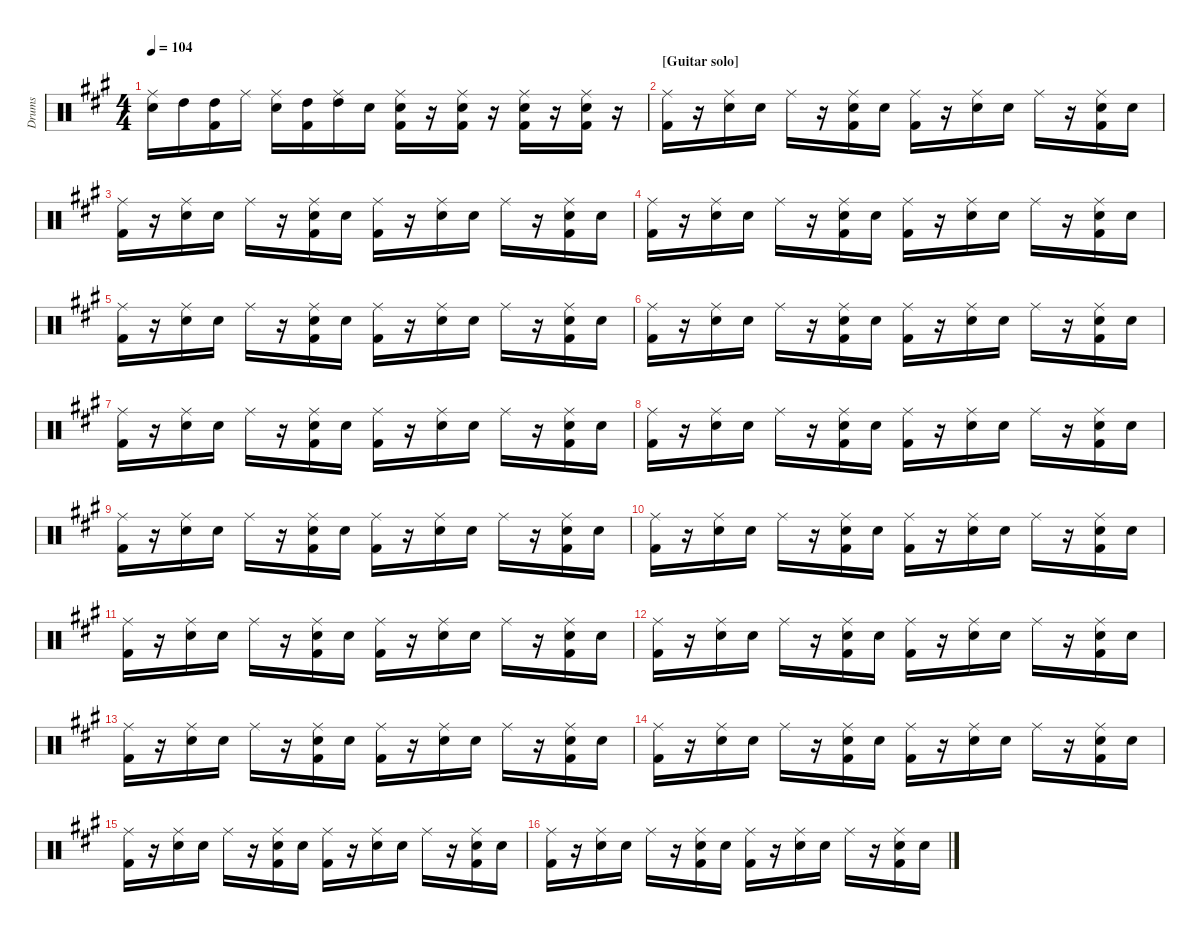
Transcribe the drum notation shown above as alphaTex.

\hideDynamics
\bracketExtendMode nobrackets
\otherSystemsTrackNameOrientation horizontal
\track ("Drumkit" "Drums") {instrument percussion}
\staff {score}
\articulation defaults
\ts (4 4)
\tempo 104
\clef neutral
\ks a
("Ride (middle)"{acc forcenatural} "Snare (hit) 2"{acc forcenatural}).16{dy f beam Down} "High Tom (hit)"{acc forcenatural}.16{beam Down} ("High Tom (hit)"{acc forcenatural} "Kick (hit) 2"{acc forcenatural}).16{beam Down} "Ride (middle)"{acc forcenatural}.16{beam Down} ("Ride (middle)"{acc forcenatural} "Snare (hit) 2"{acc forcenatural}).16{beam Down} ("High Tom (hit)"{acc forcenatural} "Kick (hit) 2"{acc forcenatural}).16{beam Down} ("Ride (middle)"{acc forcenatural} "High Tom (hit)"{acc forcenatural}).16{beam Down} "Snare (hit) 2"{acc forcenatural}.16{beam Down} ("Ride (middle)"{acc forcenatural} "Snare (hit) 2"{acc forcenatural} "Kick (hit) 2"{acc forcenatural}).16{beam Down} r.16{beam Down} ("Ride (middle)"{acc forcenatural} "Snare (hit) 2"{acc forcenatural} "Kick (hit) 2"{acc forcenatural}).16{beam Down} r.16{beam Down} ("Ride (middle)"{acc forcenatural} "Snare (hit) 2"{acc forcenatural} "Kick (hit) 2"{acc forcenatural}).16{beam Down} r.16{beam Down} ("Ride (middle)"{acc forcenatural} "Snare (hit) 2"{acc forcenatural} "Kick (hit) 2"{acc forcenatural}).16{beam Down} r.16{beam Down} |
\section ("" "[Guitar solo]")
("Ride (middle)"{acc forcenatural} "Kick (hit) 2"{acc forcenatural}).16{beam Down} r.16{beam Down} ("Ride (middle)"{acc forcenatural} "Snare (hit) 2"{acc forcenatural}).16{beam Down} "Snare (hit) 2"{acc forcenatural}.16{beam Down} "Ride (middle)"{acc forcenatural}.16{beam Down} r.16{beam Down} ("Ride (middle)"{acc forcenatural} "Snare (hit) 2"{acc forcenatural} "Kick (hit) 2"{acc forcenatural}).16{beam Down} "Snare (hit) 2"{acc forcenatural}.16{beam Down} ("Ride (middle)"{acc forcenatural} "Kick (hit) 2"{acc forcenatural}).16{beam Down} r.16{beam Down} ("Ride (middle)"{acc forcenatural} "Snare (hit) 2"{acc forcenatural}).16{beam Down} "Snare (hit) 2"{acc forcenatural}.16{beam Down} "Ride (middle)"{acc forcenatural}.16{beam Down} r.16{beam Down} ("Ride (middle)"{acc forcenatural} "Snare (hit) 2"{acc forcenatural} "Kick (hit) 2"{acc forcenatural}).16{beam Down} "Snare (hit) 2"{acc forcenatural}.16{beam Down} |
("Ride (middle)"{acc forcenatural} "Kick (hit) 2"{acc forcenatural}).16{beam Down} r.16{beam Down} ("Ride (middle)"{acc forcenatural} "Snare (hit) 2"{acc forcenatural}).16{beam Down} "Snare (hit) 2"{acc forcenatural}.16{beam Down} "Ride (middle)"{acc forcenatural}.16{beam Down} r.16{beam Down} ("Ride (middle)"{acc forcenatural} "Snare (hit) 2"{acc forcenatural} "Kick (hit) 2"{acc forcenatural}).16{beam Down} "Snare (hit) 2"{acc forcenatural}.16{beam Down} ("Ride (middle)"{acc forcenatural} "Kick (hit) 2"{acc forcenatural}).16{beam Down} r.16{beam Down} ("Ride (middle)"{acc forcenatural} "Snare (hit) 2"{acc forcenatural}).16{beam Down} "Snare (hit) 2"{acc forcenatural}.16{beam Down} "Ride (middle)"{acc forcenatural}.16{beam Down} r.16{beam Down} ("Ride (middle)"{acc forcenatural} "Snare (hit) 2"{acc forcenatural} "Kick (hit) 2"{acc forcenatural}).16{beam Down} "Snare (hit) 2"{acc forcenatural}.16{beam Down} |
("Ride (middle)"{acc forcenatural} "Kick (hit) 2"{acc forcenatural}).16{beam Down} r.16{beam Down} ("Ride (middle)"{acc forcenatural} "Snare (hit) 2"{acc forcenatural}).16{beam Down} "Snare (hit) 2"{acc forcenatural}.16{beam Down} "Ride (middle)"{acc forcenatural}.16{beam Down} r.16{beam Down} ("Ride (middle)"{acc forcenatural} "Snare (hit) 2"{acc forcenatural} "Kick (hit) 2"{acc forcenatural}).16{beam Down} "Snare (hit) 2"{acc forcenatural}.16{beam Down} ("Ride (middle)"{acc forcenatural} "Kick (hit) 2"{acc forcenatural}).16{beam Down} r.16{beam Down} ("Ride (middle)"{acc forcenatural} "Snare (hit) 2"{acc forcenatural}).16{beam Down} "Snare (hit) 2"{acc forcenatural}.16{beam Down} "Ride (middle)"{acc forcenatural}.16{beam Down} r.16{beam Down} ("Ride (middle)"{acc forcenatural} "Snare (hit) 2"{acc forcenatural} "Kick (hit) 2"{acc forcenatural}).16{beam Down} "Snare (hit) 2"{acc forcenatural}.16{beam Down} |
("Ride (middle)"{acc forcenatural} "Kick (hit) 2"{acc forcenatural}).16{beam Down} r.16{beam Down} ("Ride (middle)"{acc forcenatural} "Snare (hit) 2"{acc forcenatural}).16{beam Down} "Snare (hit) 2"{acc forcenatural}.16{beam Down} "Ride (middle)"{acc forcenatural}.16{beam Down} r.16{beam Down} ("Ride (middle)"{acc forcenatural} "Snare (hit) 2"{acc forcenatural} "Kick (hit) 2"{acc forcenatural}).16{beam Down} "Snare (hit) 2"{acc forcenatural}.16{beam Down} ("Ride (middle)"{acc forcenatural} "Kick (hit) 2"{acc forcenatural}).16{beam Down} r.16{beam Down} ("Ride (middle)"{acc forcenatural} "Snare (hit) 2"{acc forcenatural}).16{beam Down} "Snare (hit) 2"{acc forcenatural}.16{beam Down} "Ride (middle)"{acc forcenatural}.16{beam Down} r.16{beam Down} ("Ride (middle)"{acc forcenatural} "Snare (hit) 2"{acc forcenatural} "Kick (hit) 2"{acc forcenatural}).16{beam Down} "Snare (hit) 2"{acc forcenatural}.16{beam Down} |
("Ride (middle)"{acc forcenatural} "Kick (hit) 2"{acc forcenatural}).16{beam Down} r.16{beam Down} ("Ride (middle)"{acc forcenatural} "Snare (hit) 2"{acc forcenatural}).16{beam Down} "Snare (hit) 2"{acc forcenatural}.16{beam Down} "Ride (middle)"{acc forcenatural}.16{beam Down} r.16{beam Down} ("Ride (middle)"{acc forcenatural} "Snare (hit) 2"{acc forcenatural} "Kick (hit) 2"{acc forcenatural}).16{beam Down} "Snare (hit) 2"{acc forcenatural}.16{beam Down} ("Ride (middle)"{acc forcenatural} "Kick (hit) 2"{acc forcenatural}).16{beam Down} r.16{beam Down} ("Ride (middle)"{acc forcenatural} "Snare (hit) 2"{acc forcenatural}).16{beam Down} "Snare (hit) 2"{acc forcenatural}.16{beam Down} "Ride (middle)"{acc forcenatural}.16{beam Down} r.16{beam Down} ("Ride (middle)"{acc forcenatural} "Snare (hit) 2"{acc forcenatural} "Kick (hit) 2"{acc forcenatural}).16{beam Down} "Snare (hit) 2"{acc forcenatural}.16{beam Down} |
("Ride (middle)"{acc forcenatural} "Kick (hit) 2"{acc forcenatural}).16{beam Down} r.16{beam Down} ("Ride (middle)"{acc forcenatural} "Snare (hit) 2"{acc forcenatural}).16{beam Down} "Snare (hit) 2"{acc forcenatural}.16{beam Down} "Ride (middle)"{acc forcenatural}.16{beam Down} r.16{beam Down} ("Ride (middle)"{acc forcenatural} "Snare (hit) 2"{acc forcenatural} "Kick (hit) 2"{acc forcenatural}).16{beam Down} "Snare (hit) 2"{acc forcenatural}.16{beam Down} ("Ride (middle)"{acc forcenatural} "Kick (hit) 2"{acc forcenatural}).16{beam Down} r.16{beam Down} ("Ride (middle)"{acc forcenatural} "Snare (hit) 2"{acc forcenatural}).16{beam Down} "Snare (hit) 2"{acc forcenatural}.16{beam Down} "Ride (middle)"{acc forcenatural}.16{beam Down} r.16{beam Down} ("Ride (middle)"{acc forcenatural} "Snare (hit) 2"{acc forcenatural} "Kick (hit) 2"{acc forcenatural}).16{beam Down} "Snare (hit) 2"{acc forcenatural}.16{beam Down} |
("Ride (middle)"{acc forcenatural} "Kick (hit) 2"{acc forcenatural}).16{beam Down} r.16{beam Down} ("Ride (middle)"{acc forcenatural} "Snare (hit) 2"{acc forcenatural}).16{beam Down} "Snare (hit) 2"{acc forcenatural}.16{beam Down} "Ride (middle)"{acc forcenatural}.16{beam Down} r.16{beam Down} ("Ride (middle)"{acc forcenatural} "Snare (hit) 2"{acc forcenatural} "Kick (hit) 2"{acc forcenatural}).16{beam Down} "Snare (hit) 2"{acc forcenatural}.16{beam Down} ("Ride (middle)"{acc forcenatural} "Kick (hit) 2"{acc forcenatural}).16{beam Down} r.16{beam Down} ("Ride (middle)"{acc forcenatural} "Snare (hit) 2"{acc forcenatural}).16{beam Down} "Snare (hit) 2"{acc forcenatural}.16{beam Down} "Ride (middle)"{acc forcenatural}.16{beam Down} r.16{beam Down} ("Ride (middle)"{acc forcenatural} "Snare (hit) 2"{acc forcenatural} "Kick (hit) 2"{acc forcenatural}).16{beam Down} "Snare (hit) 2"{acc forcenatural}.16{beam Down} |
("Ride (middle)"{acc forcenatural} "Kick (hit) 2"{acc forcenatural}).16{beam Down} r.16{beam Down} ("Ride (middle)"{acc forcenatural} "Snare (hit) 2"{acc forcenatural}).16{beam Down} "Snare (hit) 2"{acc forcenatural}.16{beam Down} "Ride (middle)"{acc forcenatural}.16{beam Down} r.16{beam Down} ("Ride (middle)"{acc forcenatural} "Snare (hit) 2"{acc forcenatural} "Kick (hit) 2"{acc forcenatural}).16{beam Down} "Snare (hit) 2"{acc forcenatural}.16{beam Down} ("Ride (middle)"{acc forcenatural} "Kick (hit) 2"{acc forcenatural}).16{beam Down} r.16{beam Down} ("Ride (middle)"{acc forcenatural} "Snare (hit) 2"{acc forcenatural}).16{beam Down} "Snare (hit) 2"{acc forcenatural}.16{beam Down} "Ride (middle)"{acc forcenatural}.16{beam Down} r.16{beam Down} ("Ride (middle)"{acc forcenatural} "Snare (hit) 2"{acc forcenatural} "Kick (hit) 2"{acc forcenatural}).16{beam Down} "Snare (hit) 2"{acc forcenatural}.16{beam Down} |
("Ride (middle)"{acc forcenatural} "Kick (hit) 2"{acc forcenatural}).16{beam Down} r.16{beam Down} ("Ride (middle)"{acc forcenatural} "Snare (hit) 2"{acc forcenatural}).16{beam Down} "Snare (hit) 2"{acc forcenatural}.16{beam Down} "Ride (middle)"{acc forcenatural}.16{beam Down} r.16{beam Down} ("Ride (middle)"{acc forcenatural} "Snare (hit) 2"{acc forcenatural} "Kick (hit) 2"{acc forcenatural}).16{beam Down} "Snare (hit) 2"{acc forcenatural}.16{beam Down} ("Ride (middle)"{acc forcenatural} "Kick (hit) 2"{acc forcenatural}).16{beam Down} r.16{beam Down} ("Ride (middle)"{acc forcenatural} "Snare (hit) 2"{acc forcenatural}).16{beam Down} "Snare (hit) 2"{acc forcenatural}.16{beam Down} "Ride (middle)"{acc forcenatural}.16{beam Down} r.16{beam Down} ("Ride (middle)"{acc forcenatural} "Snare (hit) 2"{acc forcenatural} "Kick (hit) 2"{acc forcenatural}).16{beam Down} "Snare (hit) 2"{acc forcenatural}.16{beam Down} |
("Ride (middle)"{acc forcenatural} "Kick (hit) 2"{acc forcenatural}).16{beam Down} r.16{beam Down} ("Ride (middle)"{acc forcenatural} "Snare (hit) 2"{acc forcenatural}).16{beam Down} "Snare (hit) 2"{acc forcenatural}.16{beam Down} "Ride (middle)"{acc forcenatural}.16{beam Down} r.16{beam Down} ("Ride (middle)"{acc forcenatural} "Snare (hit) 2"{acc forcenatural} "Kick (hit) 2"{acc forcenatural}).16{beam Down} "Snare (hit) 2"{acc forcenatural}.16{beam Down} ("Ride (middle)"{acc forcenatural} "Kick (hit) 2"{acc forcenatural}).16{beam Down} r.16{beam Down} ("Ride (middle)"{acc forcenatural} "Snare (hit) 2"{acc forcenatural}).16{beam Down} "Snare (hit) 2"{acc forcenatural}.16{beam Down} "Ride (middle)"{acc forcenatural}.16{beam Down} r.16{beam Down} ("Ride (middle)"{acc forcenatural} "Snare (hit) 2"{acc forcenatural} "Kick (hit) 2"{acc forcenatural}).16{beam Down} "Snare (hit) 2"{acc forcenatural}.16{beam Down} |
("Ride (middle)"{acc forcenatural} "Kick (hit) 2"{acc forcenatural}).16{beam Down} r.16{beam Down} ("Ride (middle)"{acc forcenatural} "Snare (hit) 2"{acc forcenatural}).16{beam Down} "Snare (hit) 2"{acc forcenatural}.16{beam Down} "Ride (middle)"{acc forcenatural}.16{beam Down} r.16{beam Down} ("Ride (middle)"{acc forcenatural} "Snare (hit) 2"{acc forcenatural} "Kick (hit) 2"{acc forcenatural}).16{beam Down} "Snare (hit) 2"{acc forcenatural}.16{beam Down} ("Ride (middle)"{acc forcenatural} "Kick (hit) 2"{acc forcenatural}).16{beam Down} r.16{beam Down} ("Ride (middle)"{acc forcenatural} "Snare (hit) 2"{acc forcenatural}).16{beam Down} "Snare (hit) 2"{acc forcenatural}.16{beam Down} "Ride (middle)"{acc forcenatural}.16{beam Down} r.16{beam Down} ("Ride (middle)"{acc forcenatural} "Snare (hit) 2"{acc forcenatural} "Kick (hit) 2"{acc forcenatural}).16{beam Down} "Snare (hit) 2"{acc forcenatural}.16{beam Down} |
("Ride (middle)"{acc forcenatural} "Kick (hit) 2"{acc forcenatural}).16{beam Down} r.16{beam Down} ("Ride (middle)"{acc forcenatural} "Snare (hit) 2"{acc forcenatural}).16{beam Down} "Snare (hit) 2"{acc forcenatural}.16{beam Down} "Ride (middle)"{acc forcenatural}.16{beam Down} r.16{beam Down} ("Ride (middle)"{acc forcenatural} "Snare (hit) 2"{acc forcenatural} "Kick (hit) 2"{acc forcenatural}).16{beam Down} "Snare (hit) 2"{acc forcenatural}.16{beam Down} ("Ride (middle)"{acc forcenatural} "Kick (hit) 2"{acc forcenatural}).16{beam Down} r.16{beam Down} ("Ride (middle)"{acc forcenatural} "Snare (hit) 2"{acc forcenatural}).16{beam Down} "Snare (hit) 2"{acc forcenatural}.16{beam Down} "Ride (middle)"{acc forcenatural}.16{beam Down} r.16{beam Down} ("Ride (middle)"{acc forcenatural} "Snare (hit) 2"{acc forcenatural} "Kick (hit) 2"{acc forcenatural}).16{beam Down} "Snare (hit) 2"{acc forcenatural}.16{beam Down} |
("Ride (middle)"{acc forcenatural} "Kick (hit) 2"{acc forcenatural}).16{beam Down} r.16{beam Down} ("Ride (middle)"{acc forcenatural} "Snare (hit) 2"{acc forcenatural}).16{beam Down} "Snare (hit) 2"{acc forcenatural}.16{beam Down} "Ride (middle)"{acc forcenatural}.16{beam Down} r.16{beam Down} ("Ride (middle)"{acc forcenatural} "Snare (hit) 2"{acc forcenatural} "Kick (hit) 2"{acc forcenatural}).16{beam Down} "Snare (hit) 2"{acc forcenatural}.16{beam Down} ("Ride (middle)"{acc forcenatural} "Kick (hit) 2"{acc forcenatural}).16{beam Down} r.16{beam Down} ("Ride (middle)"{acc forcenatural} "Snare (hit) 2"{acc forcenatural}).16{beam Down} "Snare (hit) 2"{acc forcenatural}.16{beam Down} "Ride (middle)"{acc forcenatural}.16{beam Down} r.16{beam Down} ("Ride (middle)"{acc forcenatural} "Snare (hit) 2"{acc forcenatural} "Kick (hit) 2"{acc forcenatural}).16{beam Down} "Snare (hit) 2"{acc forcenatural}.16{beam Down} |
("Ride (middle)"{acc forcenatural} "Kick (hit) 2"{acc forcenatural}).16{beam Down} r.16{beam Down} ("Ride (middle)"{acc forcenatural} "Snare (hit) 2"{acc forcenatural}).16{beam Down} "Snare (hit) 2"{acc forcenatural}.16{beam Down} "Ride (middle)"{acc forcenatural}.16{beam Down} r.16{beam Down} ("Ride (middle)"{acc forcenatural} "Snare (hit) 2"{acc forcenatural} "Kick (hit) 2"{acc forcenatural}).16{beam Down} "Snare (hit) 2"{acc forcenatural}.16{beam Down} ("Ride (middle)"{acc forcenatural} "Kick (hit) 2"{acc forcenatural}).16{beam Down} r.16{beam Down} ("Ride (middle)"{acc forcenatural} "Snare (hit) 2"{acc forcenatural}).16{beam Down} "Snare (hit) 2"{acc forcenatural}.16{beam Down} "Ride (middle)"{acc forcenatural}.16{beam Down} r.16{beam Down} ("Ride (middle)"{acc forcenatural} "Snare (hit) 2"{acc forcenatural} "Kick (hit) 2"{acc forcenatural}).16{beam Down} "Snare (hit) 2"{acc forcenatural}.16{beam Down} |
("Ride (middle)"{acc forcenatural} "Kick (hit) 2"{acc forcenatural}).16{beam Down} r.16{beam Down} ("Ride (middle)"{acc forcenatural} "Snare (hit) 2"{acc forcenatural}).16{beam Down} "Snare (hit) 2"{acc forcenatural}.16{beam Down} "Ride (middle)"{acc forcenatural}.16{beam Down} r.16{beam Down} ("Ride (middle)"{acc forcenatural} "Snare (hit) 2"{acc forcenatural} "Kick (hit) 2"{acc forcenatural}).16{beam Down} "Snare (hit) 2"{acc forcenatural}.16{beam Down} ("Ride (middle)"{acc forcenatural} "Kick (hit) 2"{acc forcenatural}).16{beam Down} r.16{beam Down} ("Ride (middle)"{acc forcenatural} "Snare (hit) 2"{acc forcenatural}).16{beam Down} "Snare (hit) 2"{acc forcenatural}.16{beam Down} "Ride (middle)"{acc forcenatural}.16{beam Down} r.16{beam Down} ("Ride (middle)"{acc forcenatural} "Snare (hit) 2"{acc forcenatural} "Kick (hit) 2"{acc forcenatural}).16{beam Down} "Snare (hit) 2"{acc forcenatural}.16{beam Down}
